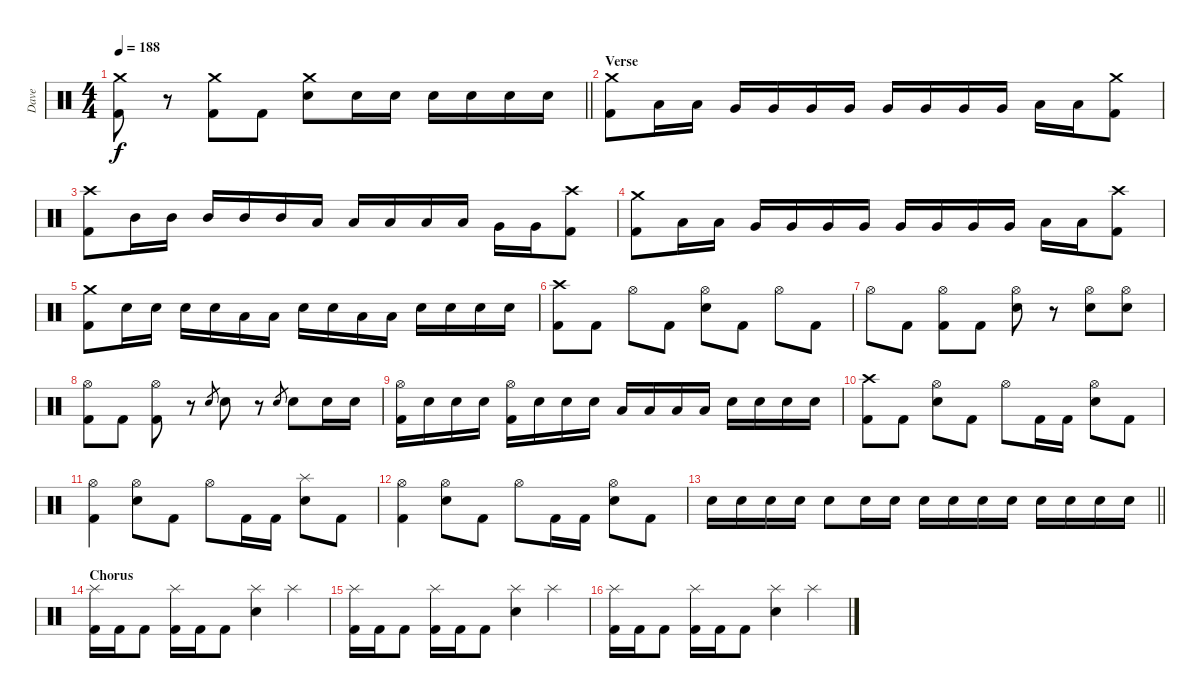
\track ("Dave" "Dave") {instrument percussion}
\staff {score}
\articulation defaults
\ts (4 4)
\tempo 188
\clef neutral
\barLineRight lightlight
\ks c
("Kick (hit) 2" "Crash medium (hit)").8{dy f} r.8 ("Kick (hit) 2" "Crash medium (hit)").8 "Kick (hit) 2".8 ("Electric Snare (hit)" "Crash medium (hit)").8 "Electric Snare (hit)".16 "Electric Snare (hit)".16 "Electric Snare (hit)".16 "Electric Snare (hit)".16 "Electric Snare (hit)".16 "Electric Snare (hit)".16 |
\section ("" "Verse")
("Crash medium (hit)" "Kick (hit) 2").8 "Low Tom (hit)".16 "Low Tom (hit)".16 "Very Low Tom (hit)".16 "Very Low Tom (hit)".16 "Very Low Tom (hit)".16 "Very Low Tom (hit)".16 "Very Low Tom (hit)".16 "Very Low Tom (hit)".16 "Very Low Tom (hit)".16 "Very Low Tom (hit)".16 "Low Floor Tom (hit)".16 "Low Floor Tom (hit)".16 ("Crash medium (hit)" "Kick (hit) 2").8 |
("Crash high (hit)" "Kick (hit) 2").8 "Mid Tom (hit)".16 "Mid Tom (hit)".16 "Mid Tom (hit)".16 "Mid Tom (hit)".16 "Mid Tom (hit)".16 "Low Tom (hit)".16 "Low Tom (hit)".16 "Low Tom (hit)".16 "Low Tom (hit)".16 "Low Tom (hit)".16 "Very Low Tom (hit)".16 "Very Low Tom (hit)".16 ("Crash high (hit)" "Kick (hit) 2").8 |
("Crash medium (hit)" "Kick (hit) 2").8 "Low Tom (hit)".16 "Low Tom (hit)".16 "Very Low Tom (hit)".16 "Very Low Tom (hit)".16 "Very Low Tom (hit)".16 "Very Low Tom (hit)".16 "Very Low Tom (hit)".16 "Very Low Tom (hit)".16 "Very Low Tom (hit)".16 "Very Low Tom (hit)".16 "Low Floor Tom (hit)".16 "Low Floor Tom (hit)".16 ("Crash high (hit)" "Kick (hit) 2").8 |
("Crash medium (hit)" "Kick (hit) 2").8 "Electric Snare (hit)".16 "Electric Snare (hit)".16 "Electric Snare (hit)".16 "Electric Snare (hit)".16 "Low Tom (hit)".16 "Low Tom (hit)".16 "Electric Snare (hit)".16 "Electric Snare (hit)".16 "Low Tom (hit)".16 "Low Tom (hit)".16 "Electric Snare (hit)".16 "Electric Snare (hit)".16 "Electric Snare (hit)".16 "Electric Snare (hit)".16 |
("Crash high (hit)" "Kick (hit) 2").8 "Kick (hit) 2".8 "Hi-Hat (open)".8 "Kick (hit) 2".8 ("Electric Snare (hit)" "Hi-Hat (open)").8 "Kick (hit) 2".8 "Hi-Hat (open)".8 "Kick (hit) 2".8 |
"Hi-Hat (open)".8 "Kick (hit) 2".8 ("Kick (hit) 2" "Hi-Hat (open)").8 "Kick (hit) 2".8 ("Electric Snare (hit)" "Hi-Hat (open)").8 r.8 ("Electric Snare (hit)" "Hi-Hat (open)").8 ("Electric Snare (hit)" "Hi-Hat (open)").8 |
("Kick (hit) 2" "Hi-Hat (open)").8 "Kick (hit) 2".8 ("Kick (hit) 2" "Hi-Hat (open)").8 r.8 "Electric Snare (hit)".8{gr} "Electric Snare (hit)".8 r.8 "Electric Snare (hit)".8{gr} "Electric Snare (hit)".8 "Electric Snare (hit)".16 "Electric Snare (hit)".16 |
("Hi-Hat (open)" "Kick (hit) 2").16 "Electric Snare (hit)".16 "Electric Snare (hit)".16 "Electric Snare (hit)".16 ("Hi-Hat (open)" "Kick (hit) 2").16 "Electric Snare (hit)".16 "Electric Snare (hit)".16 "Electric Snare (hit)".16 "Low Tom (hit)".16 "Low Tom (hit)".16 "Low Tom (hit)".16 "Low Tom (hit)".16 "Electric Snare (hit)".16 "Electric Snare (hit)".16 "Electric Snare (hit)".16 "Electric Snare (hit)".16 |
("Crash high (hit)" "Kick (hit) 2").8 "Kick (hit) 2".8 ("Electric Snare (hit)" "Hi-Hat (open)").8 "Kick (hit) 2".8 "Hi-Hat (open)".8 "Kick (hit) 2".16 "Kick (hit) 2".16 ("Electric Snare (hit)" "Hi-Hat (open)").8 "Kick (hit) 2".8 |
("Hi-Hat (open)" "Kick (hit) 2").4 ("Electric Snare (hit)" "Hi-Hat (open)").8 "Kick (hit) 2".8 "Hi-Hat (open)".8 "Kick (hit) 2".16 "Kick (hit) 2".16 ("Electric Snare (hit)" "Splash (hit)").8 "Kick (hit) 2".8 |
("Hi-Hat (open)" "Kick (hit) 2").4 ("Electric Snare (hit)" "Hi-Hat (open)").8 "Kick (hit) 2".8 "Hi-Hat (open)".8 "Kick (hit) 2".16 "Kick (hit) 2".16 ("Electric Snare (hit)" "Hi-Hat (open)").8 "Kick (hit) 2".8 |
\barLineRight lightlight "Electric Snare (hit)".16 "Electric Snare (hit)".16 "Electric Snare (hit)".16 "Electric Snare (hit)".16 "Electric Snare (hit)".8 "Electric Snare (hit)".16 "Electric Snare (hit)".16 "Electric Snare (hit)".16 "Electric Snare (hit)".16 "Electric Snare (hit)".16 "Electric Snare (hit)".16 "Electric Snare (hit)".16 "Electric Snare (hit)".16 "Electric Snare (hit)".16 "Electric Snare (hit)".16
|
\section ("" "Chorus")
("Kick (hit) 2" "Splash (hit)").16 "Kick (hit) 2".16 "Kick (hit) 2".8 ("Kick (hit) 2" "Splash (hit)").16 "Kick (hit) 2".16 "Kick (hit) 2".8 ("Electric Snare (hit)" "Splash (hit)").4 "Splash (hit)".4 |
("Kick (hit) 2" "Splash (hit)").16 "Kick (hit) 2".16 "Kick (hit) 2".8 ("Kick (hit) 2" "Splash (hit)").16 "Kick (hit) 2".16 "Kick (hit) 2".8 ("Electric Snare (hit)" "Splash (hit)").4 "Splash (hit)".4 |
("Kick (hit) 2" "Splash (hit)").16 "Kick (hit) 2".16 "Kick (hit) 2".8 ("Kick (hit) 2" "Splash (hit)").16 "Kick (hit) 2".16 "Kick (hit) 2".8 ("Electric Snare (hit)" "Splash (hit)").4 "Splash (hit)".4
